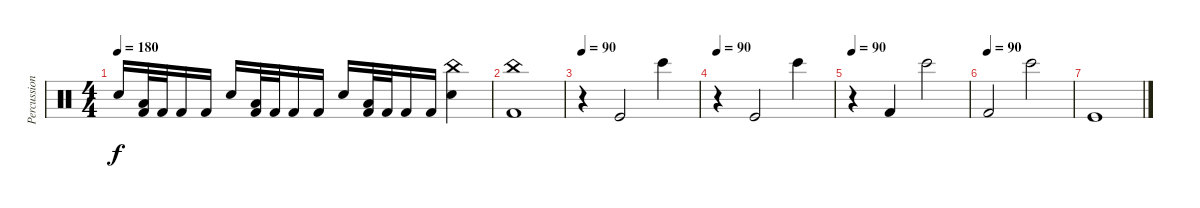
\track ("Percussions" "Percussion") {instrument percussion}
\staff {score}
\articulation defaults
\ts (4 4)
\tempo 180
\clef neutral
\ks c "Snare (hit) 2".16{dy f}
("Low Floor Tom (hit)" "Kick (hit) 2").32 "Kick (hit) 2".32 "Kick (hit) 2".16 "Kick (hit) 2".16 "Snare (hit) 2".16 ("Low Floor Tom (hit)" "Kick (hit) 2").32 "Kick (hit) 2".32 "Kick (hit) 2".16 "Kick (hit) 2".16 "Snare (hit) 2".16 ("Low Floor Tom (hit)" "Kick (hit) 2").32 "Kick (hit) 2".32 "Kick (hit) 2".16 "Kick (hit) 2".16 ("China (hit)" "Snare (hit) 2").4 |
("China (hit)" "Kick (hit) 2").1 |
\tempo 90
r.4 "Kick (hit)".2 "Bongo High (hit)".4 |
\tempo 90
r.4 "Kick (hit)".2 "Bongo High (hit)".4 |
\tempo 90
r.4 "Kick (hit) 2".4 "Bongo High (hit)".2 |
\tempo (90)
"Kick (hit) 2".2 "Bongo High (hit)".2 |
"Kick (hit)".1
